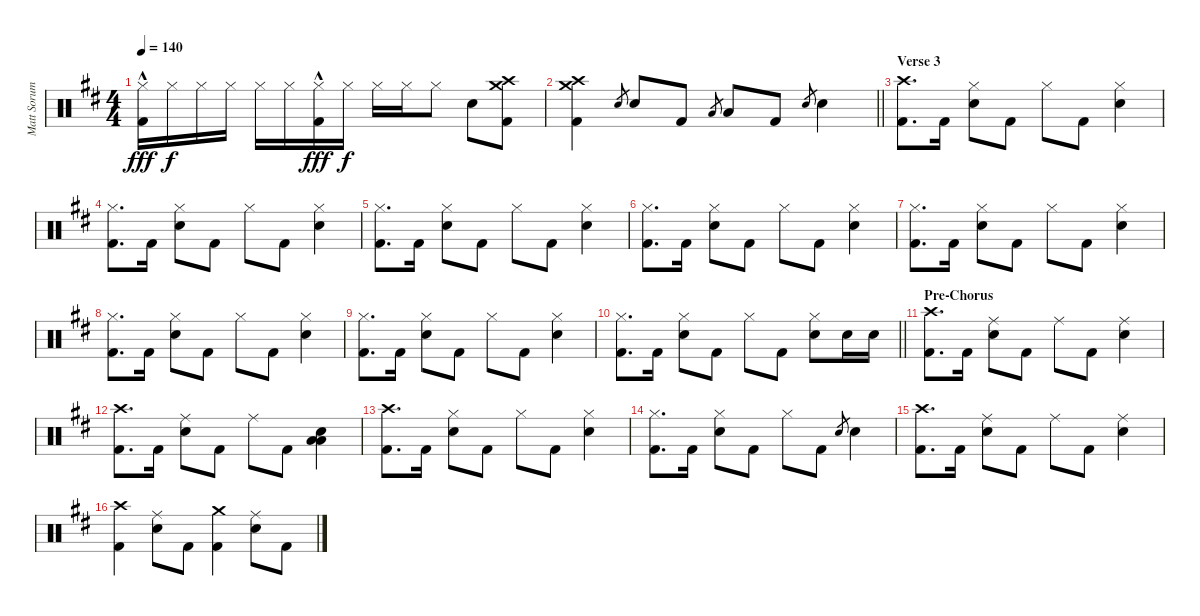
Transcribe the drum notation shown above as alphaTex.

\track ("Matt Sorum - Drums" "Matt Sorum") {instrument percussion}
\staff {score}
\articulation defaults
\ts (4 4)
\tempo 140
\clef neutral
\ks d
("Hi-Hat (closed)"{hac} "Kick (hit) 2").16{dy fff} "Hi-Hat (closed)".16{dy f} "Hi-Hat (closed)".16 "Hi-Hat (closed)".16 "Hi-Hat (closed)".16 "Hi-Hat (closed)".16 ("Hi-Hat (closed)"{hac} "Kick (hit) 2").16{dy fff} "Hi-Hat (closed)".16{dy f} "Hi-Hat (closed)".16 "Hi-Hat (closed)".16 "Hi-Hat (closed)".8 "Snare (hit) 2".8 ("Crash medium (hit)" "Crash high (hit)" "Kick (hit) 2").8 |
\barLineRight lightlight
("Crash medium (hit)" "Crash high (hit)" "Kick (hit) 2").4 "Snare (hit) 2".8{gr} "Snare (hit) 2".8 "Kick (hit) 2".8 "Low Tom (hit)".8{gr} "Low Tom (hit)".8 "Kick (hit) 2".8 "Snare (hit) 2".8{gr} "Snare (hit) 2".4 |
\section ("" "Verse 3")
("Crash high (hit)" "Kick (hit) 2").8{d} "Kick (hit) 2".16 ("Hi-Hat (closed)" "Snare (hit) 2").8 "Kick (hit) 2".8 "Hi-Hat (closed)".8 "Kick (hit) 2".8 ("Hi-Hat (closed)" "Snare (hit) 2").4 |
("Hi-Hat (closed)" "Kick (hit) 2").8{d} "Kick (hit) 2".16 ("Hi-Hat (closed)" "Snare (hit) 2").8 "Kick (hit) 2".8 "Hi-Hat (closed)".8 "Kick (hit) 2".8 ("Hi-Hat (closed)" "Snare (hit) 2").4 |
("Hi-Hat (closed)" "Kick (hit) 2").8{d} "Kick (hit) 2".16 ("Hi-Hat (closed)" "Snare (hit) 2").8 "Kick (hit) 2".8 "Hi-Hat (closed)".8 "Kick (hit) 2".8 ("Hi-Hat (closed)" "Snare (hit) 2").4 |
("Hi-Hat (closed)" "Kick (hit) 2").8{d} "Kick (hit) 2".16 ("Hi-Hat (closed)" "Snare (hit) 2").8 "Kick (hit) 2".8 "Hi-Hat (closed)".8 "Kick (hit) 2".8 ("Hi-Hat (closed)" "Snare (hit) 2").4 |
("Hi-Hat (closed)" "Kick (hit) 2").8{d} "Kick (hit) 2".16 ("Hi-Hat (closed)" "Snare (hit) 2").8 "Kick (hit) 2".8 "Hi-Hat (closed)".8 "Kick (hit) 2".8 ("Hi-Hat (closed)" "Snare (hit) 2").4 |
("Hi-Hat (closed)" "Kick (hit) 2").8{d} "Kick (hit) 2".16 ("Hi-Hat (closed)" "Snare (hit) 2").8 "Kick (hit) 2".8 "Hi-Hat (closed)".8 "Kick (hit) 2".8 ("Hi-Hat (closed)" "Snare (hit) 2").4 |
("Hi-Hat (closed)" "Kick (hit) 2").8{d} "Kick (hit) 2".16 ("Hi-Hat (closed)" "Snare (hit) 2").8 "Kick (hit) 2".8 "Hi-Hat (closed)".8 "Kick (hit) 2".8 ("Hi-Hat (closed)" "Snare (hit) 2").4 |
\barLineRight lightlight
("Hi-Hat (closed)" "Kick (hit) 2").8{d} "Kick (hit) 2".16 ("Hi-Hat (closed)" "Snare (hit) 2").8 "Kick (hit) 2".8 "Hi-Hat (closed)".8 "Kick (hit) 2".8 ("Hi-Hat (closed)" "Snare (hit) 2").8 "Snare (hit) 2".16 "Snare (hit) 2".16 |
\section ("" "Pre-Chorus")
("Crash high (hit)" "Kick (hit) 2").8{d} "Kick (hit) 2".16 ("Ride (middle)" "Snare (hit) 2").8 "Kick (hit) 2".8 "Ride (middle)".8 "Kick (hit) 2".8 ("Ride (middle)" "Snare (hit) 2").4 |
("Crash high (hit)" "Kick (hit) 2").8{d} "Kick (hit) 2".16 ("Ride (middle)" "Snare (hit) 2").8 "Kick (hit) 2".8 "Ride (middle)".8 "Kick (hit) 2".8 ("Low Tom (hit)" "Low Tom (hit)" "Snare (hit) 2").4 |
("Crash high (hit)" "Kick (hit) 2").8{d} "Kick (hit) 2".16 ("Hi-Hat (closed)" "Snare (hit) 2").8 "Kick (hit) 2".8 "Hi-Hat (closed)".8 "Kick (hit) 2".8 ("Hi-Hat (closed)" "Snare (hit) 2").4 |
("Hi-Hat (closed)" "Kick (hit) 2").8{d} "Kick (hit) 2".16 ("Hi-Hat (closed)" "Snare (hit) 2").8 "Kick (hit) 2".8 "Hi-Hat (closed)".8 "Kick (hit) 2".8 "Snare (hit) 2".8{gr} "Snare (hit) 2".4 |
("Crash high (hit)" "Kick (hit) 2").8{d} "Kick (hit) 2".16 ("Ride (middle)" "Snare (hit) 2").8 "Kick (hit) 2".8 "Ride (middle)".8 "Kick (hit) 2".8 ("Ride (middle)" "Snare (hit) 2").4 |
("Crash high (hit)" "Kick (hit) 2").4 ("Ride (middle)" "Snare (hit) 2").8 "Kick (hit) 2".8 ("Crash medium (hit)" "Kick (hit) 2").4 ("Ride (middle)" "Snare (hit) 2").8 "Kick (hit) 2".8
